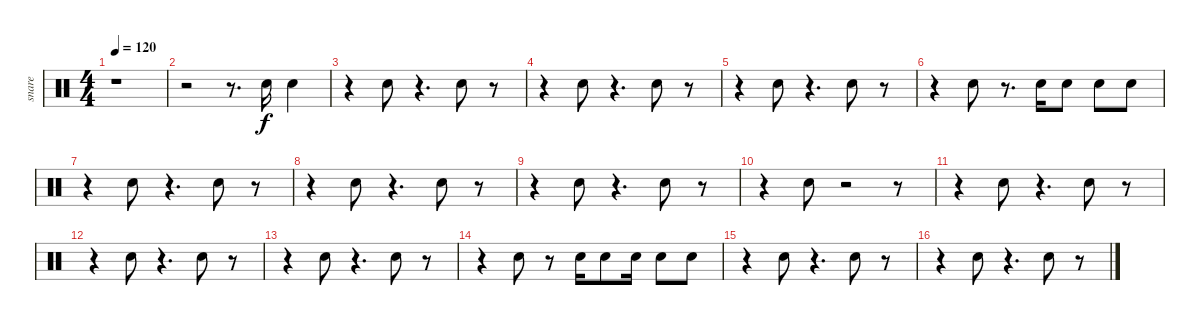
\track ("snare" "snare") {instrument percussion}
\staff {score}
\articulation defaults
\ts (4 4)
\tempo 120
\clef neutral
\ks c
r.1{dy f} |
r.2 r.8{d} "Electric Snare (hit)".16 "Electric Snare (hit)".4 |
r.4 "Electric Snare (hit)".8 r.4{d} "Electric Snare (hit)".8 r.8 |
r.4 "Electric Snare (hit)".8 r.4{d} "Electric Snare (hit)".8 r.8 |
r.4 "Electric Snare (hit)".8 r.4{d} "Electric Snare (hit)".8 r.8 |
r.4 "Electric Snare (hit)".8 r.8{d} "Electric Snare (hit)".16 "Electric Snare (hit)".8 "Electric Snare (hit)".8 "Electric Snare (hit)".8 |
r.4 "Electric Snare (hit)".8 r.4{d} "Electric Snare (hit)".8 r.8 |
r.4 "Electric Snare (hit)".8 r.4{d} "Electric Snare (hit)".8 r.8 |
r.4 "Electric Snare (hit)".8 r.4{d} "Electric Snare (hit)".8 r.8 |
r.4 "Electric Snare (hit)".8 r.2 r.8 |
r.4 "Electric Snare (hit)".8 r.4{d} "Electric Snare (hit)".8 r.8 |
r.4 "Electric Snare (hit)".8 r.4{d} "Electric Snare (hit)".8 r.8 |
r.4 "Electric Snare (hit)".8 r.4{d} "Electric Snare (hit)".8 r.8 |
r.4 "Electric Snare (hit)".8 r.8 "Electric Snare (hit)".16 "Electric Snare (hit)".8 "Electric Snare (hit)".16 "Electric Snare (hit)".8 "Electric Snare (hit)".8 |
r.4 "Electric Snare (hit)".8 r.4{d} "Electric Snare (hit)".8 r.8 |
r.4 "Electric Snare (hit)".8 r.4{d} "Electric Snare (hit)".8 r.8
